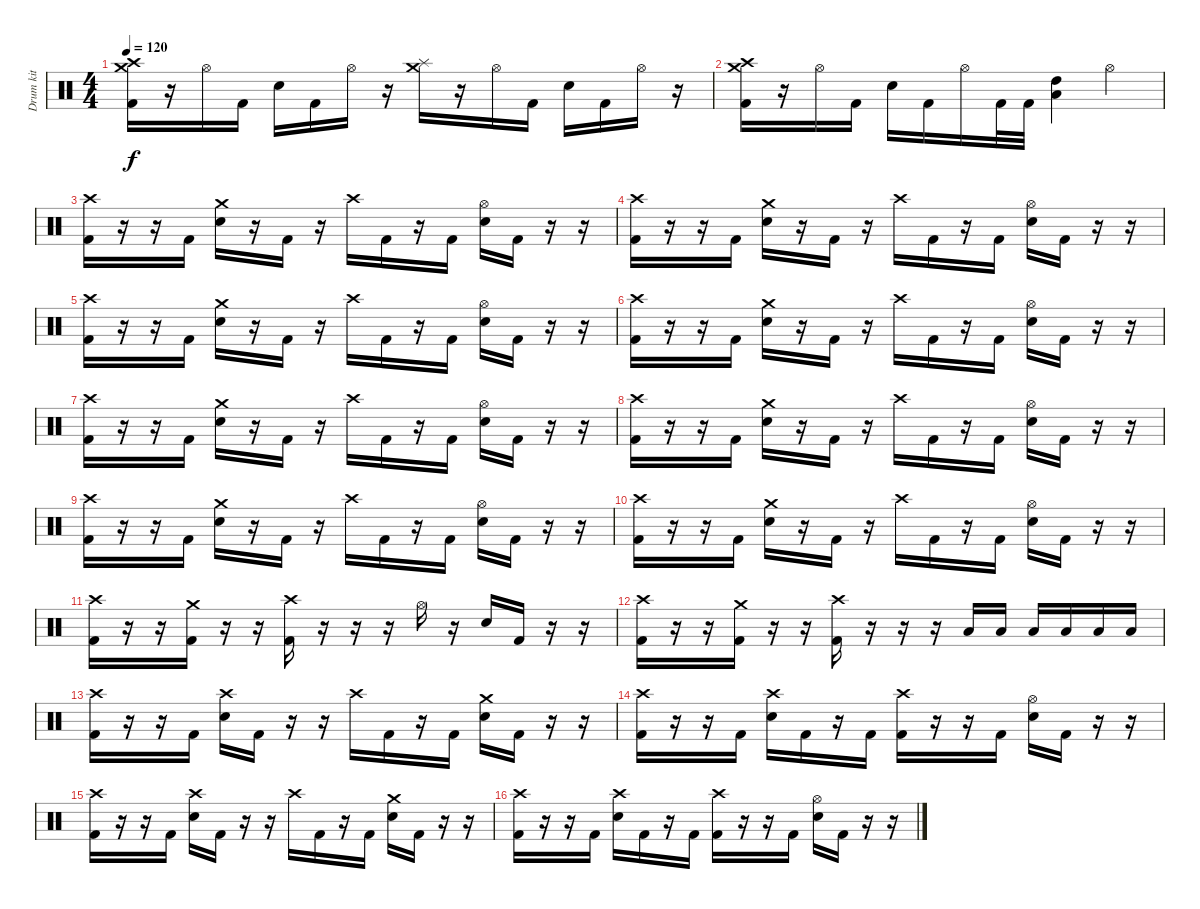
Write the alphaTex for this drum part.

\track ("Drum kit" "Drum kit") {instrument percussion}
\staff {score}
\articulation defaults
\ts (4 4)
\tempo 120
\clef neutral
\ks c
("Crash high (hit)" "Crash medium (hit)" "Kick (hit) 2").16{dy f} r.16 "Hi-Hat (open)".16 "Kick (hit) 2".16 "Snare (hit) 2".16 "Kick (hit) 2".16 "Hi-Hat (open)".16 r.16 ("Splash (hit)" "Crash medium (hit)").16 r.16 "Hi-Hat (open)".16 "Kick (hit) 2".16 "Snare (hit) 2".16 "Kick (hit) 2".16 "Hi-Hat (open)".16 r.16 |
("Crash high (hit)" "Crash medium (hit)" "Kick (hit) 2").16 r.16 "Hi-Hat (open)".16 "Kick (hit) 2".16 "Snare (hit) 2".16 "Kick (hit) 2".16 "Hi-Hat (open)".16 "Kick (hit) 2".32 "Kick (hit) 2".32 ("High Tom (hit)" "Low Tom (hit)").4 "Hi-Hat (open)".4 |
("Kick (hit) 2" "Crash high (hit)").16 r.16 r.16 "Kick (hit) 2".16 ("Snare (hit) 2" "Crash medium (hit)").16 r.16 "Kick (hit) 2".16 r.16 "Crash high (hit)".16 "Kick (hit) 2".16 r.16 "Kick (hit) 2".16 ("Snare (hit) 2" "Hi-Hat (open)").16 "Kick (hit) 2".16 r.16 r.16 |
("Kick (hit) 2" "Crash high (hit)").16 r.16 r.16 "Kick (hit) 2".16 ("Snare (hit) 2" "Crash medium (hit)").16 r.16 "Kick (hit) 2".16 r.16 "Crash high (hit)".16 "Kick (hit) 2".16 r.16 "Kick (hit) 2".16 ("Snare (hit) 2" "Hi-Hat (open)").16 "Kick (hit) 2".16 r.16 r.16 |
("Kick (hit) 2" "Crash high (hit)").16 r.16 r.16 "Kick (hit) 2".16 ("Snare (hit) 2" "Crash medium (hit)").16 r.16 "Kick (hit) 2".16 r.16 "Crash high (hit)".16 "Kick (hit) 2".16 r.16 "Kick (hit) 2".16 ("Snare (hit) 2" "Hi-Hat (open)").16 "Kick (hit) 2".16 r.16 r.16 |
("Kick (hit) 2" "Crash high (hit)").16 r.16 r.16 "Kick (hit) 2".16 ("Snare (hit) 2" "Crash medium (hit)").16 r.16 "Kick (hit) 2".16 r.16 "Crash high (hit)".16 "Kick (hit) 2".16 r.16 "Kick (hit) 2".16 ("Snare (hit) 2" "Hi-Hat (open)").16 "Kick (hit) 2".16 r.16 r.16 |
("Kick (hit) 2" "Crash high (hit)").16 r.16 r.16 "Kick (hit) 2".16 ("Snare (hit) 2" "Crash medium (hit)").16 r.16 "Kick (hit) 2".16 r.16 "Crash high (hit)".16 "Kick (hit) 2".16 r.16 "Kick (hit) 2".16 ("Snare (hit) 2" "Hi-Hat (open)").16 "Kick (hit) 2".16 r.16 r.16 |
("Kick (hit) 2" "Crash high (hit)").16 r.16 r.16 "Kick (hit) 2".16 ("Snare (hit) 2" "Crash medium (hit)").16 r.16 "Kick (hit) 2".16 r.16 "Crash high (hit)".16 "Kick (hit) 2".16 r.16 "Kick (hit) 2".16 ("Snare (hit) 2" "Hi-Hat (open)").16 "Kick (hit) 2".16 r.16 r.16 |
("Kick (hit) 2" "Crash high (hit)").16 r.16 r.16 "Kick (hit) 2".16 ("Snare (hit) 2" "Crash medium (hit)").16 r.16 "Kick (hit) 2".16 r.16 "Crash high (hit)".16 "Kick (hit) 2".16 r.16 "Kick (hit) 2".16 ("Snare (hit) 2" "Hi-Hat (open)").16 "Kick (hit) 2".16 r.16 r.16 |
("Kick (hit) 2" "Crash high (hit)").16 r.16 r.16 "Kick (hit) 2".16 ("Snare (hit) 2" "Crash medium (hit)").16 r.16 "Kick (hit) 2".16 r.16 "Crash high (hit)".16 "Kick (hit) 2".16 r.16 "Kick (hit) 2".16 ("Snare (hit) 2" "Hi-Hat (open)").16 "Kick (hit) 2".16 r.16 r.16 |
("Crash high (hit)" "Kick (hit) 2").16 r.16 r.16 ("Crash medium (hit)" "Kick (hit) 2").16 r.16 r.16 ("Crash high (hit)" "Kick (hit) 2").16 r.16 r.16 r.16 "Hi-Hat (open)".16 r.16 "Snare (hit) 2".16 "Kick (hit) 2".16 r.16 r.16 |
("Crash high (hit)" "Kick (hit) 2").16 r.16 r.16 ("Crash medium (hit)" "Kick (hit) 2").16 r.16 r.16 ("Crash high (hit)" "Kick (hit) 2").16 r.16 r.16 r.16 "Low Tom (hit)".16 "Low Tom (hit)".16 "Low Tom (hit)".16 "Low Tom (hit)".16 "Low Tom (hit)".16 "Low Tom (hit)".16 |
("Kick (hit) 2" "Crash high (hit)").16 r.16 r.16 "Kick (hit) 2".16 ("Snare (hit) 2" "Crash high (hit)").16 "Kick (hit) 2".16 r.16 r.16 "Crash high (hit)".16 "Kick (hit) 2".16 r.16 "Kick (hit) 2".16 ("Snare (hit) 2" "Crash medium (hit)").16 "Kick (hit) 2".16 r.16 r.16 |
("Kick (hit) 2" "Crash high (hit)").16 r.16 r.16 "Kick (hit) 2".16 ("Snare (hit) 2" "Crash high (hit)").16 "Kick (hit) 2".16 r.16 "Kick (hit) 2".16 ("Crash high (hit)" "Kick (hit) 2").16 r.16 r.16 "Kick (hit) 2".16 ("Snare (hit) 2" "Hi-Hat (open)").16 "Kick (hit) 2".16 r.16 r.16 |
("Kick (hit) 2" "Crash high (hit)").16 r.16 r.16 "Kick (hit) 2".16 ("Snare (hit) 2" "Crash high (hit)").16 "Kick (hit) 2".16 r.16 r.16 "Crash high (hit)".16 "Kick (hit) 2".16 r.16 "Kick (hit) 2".16 ("Snare (hit) 2" "Crash medium (hit)").16 "Kick (hit) 2".16 r.16 r.16 |
("Kick (hit) 2" "Crash high (hit)").16 r.16 r.16 "Kick (hit) 2".16 ("Snare (hit) 2" "Crash high (hit)").16 "Kick (hit) 2".16 r.16 "Kick (hit) 2".16 ("Crash high (hit)" "Kick (hit) 2").16 r.16 r.16 "Kick (hit) 2".16 ("Snare (hit) 2" "Hi-Hat (open)").16 "Kick (hit) 2".16 r.16 r.16
